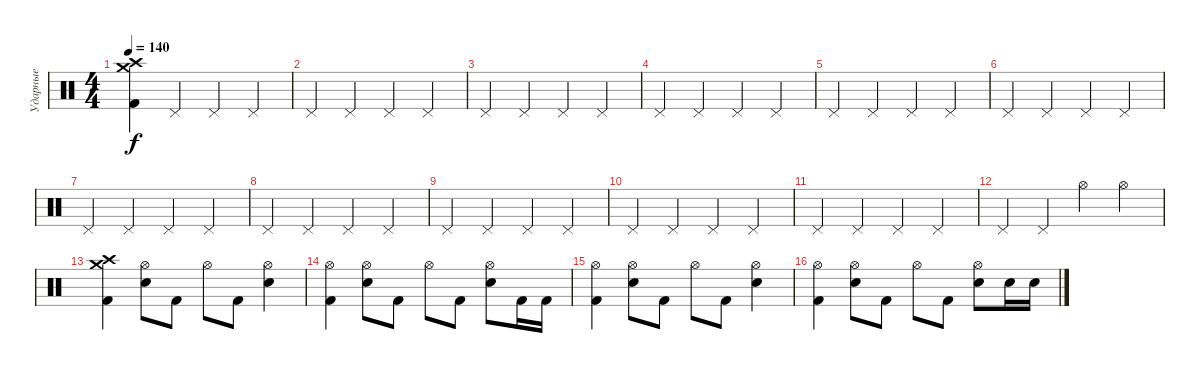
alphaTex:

\track ("Ударные" "Ударные") {instrument percussion}
\staff {score}
\articulation defaults
\ts (4 4)
\tempo 140
\clef neutral
\ks c
("Crash medium (hit)" "Crash high (hit)" "Kick (hit) 2").4{dy f} "Pedal Hi-Hat (hit)".4 "Pedal Hi-Hat (hit)".4 "Pedal Hi-Hat (hit)".4 |
"Pedal Hi-Hat (hit)".4 "Pedal Hi-Hat (hit)".4 "Pedal Hi-Hat (hit)".4 "Pedal Hi-Hat (hit)".4 |
"Pedal Hi-Hat (hit)".4 "Pedal Hi-Hat (hit)".4 "Pedal Hi-Hat (hit)".4 "Pedal Hi-Hat (hit)".4 |
"Pedal Hi-Hat (hit)".4 "Pedal Hi-Hat (hit)".4 "Pedal Hi-Hat (hit)".4 "Pedal Hi-Hat (hit)".4 |
"Pedal Hi-Hat (hit)".4 "Pedal Hi-Hat (hit)".4 "Pedal Hi-Hat (hit)".4 "Pedal Hi-Hat (hit)".4 |
"Pedal Hi-Hat (hit)".4 "Pedal Hi-Hat (hit)".4 "Pedal Hi-Hat (hit)".4 "Pedal Hi-Hat (hit)".4 |
"Pedal Hi-Hat (hit)".4 "Pedal Hi-Hat (hit)".4 "Pedal Hi-Hat (hit)".4 "Pedal Hi-Hat (hit)".4 |
"Pedal Hi-Hat (hit)".4 "Pedal Hi-Hat (hit)".4 "Pedal Hi-Hat (hit)".4 "Pedal Hi-Hat (hit)".4 |
"Pedal Hi-Hat (hit)".4 "Pedal Hi-Hat (hit)".4 "Pedal Hi-Hat (hit)".4 "Pedal Hi-Hat (hit)".4 |
"Pedal Hi-Hat (hit)".4 "Pedal Hi-Hat (hit)".4 "Pedal Hi-Hat (hit)".4 "Pedal Hi-Hat (hit)".4 |
"Pedal Hi-Hat (hit)".4 "Pedal Hi-Hat (hit)".4 "Pedal Hi-Hat (hit)".4 "Pedal Hi-Hat (hit)".4 |
"Pedal Hi-Hat (hit)".4 "Pedal Hi-Hat (hit)".4 "Hi-Hat (open)".4 "Hi-Hat (open)".4 |
("Crash medium (hit)" "Crash high (hit)" "Kick (hit) 2").4 ("Hi-Hat (open)" "Electric Snare (hit)").8 "Kick (hit) 2".8 "Hi-Hat (open)".8 "Kick (hit) 2".8 ("Hi-Hat (open)" "Electric Snare (hit)").4 |
("Hi-Hat (open)" "Kick (hit) 2").4 ("Hi-Hat (open)" "Electric Snare (hit)").8 "Kick (hit) 2".8 "Hi-Hat (open)".8 "Kick (hit) 2".8 ("Hi-Hat (open)" "Electric Snare (hit)").8 "Kick (hit) 2".16 "Kick (hit) 2".16 |
("Hi-Hat (open)" "Kick (hit) 2").4 ("Hi-Hat (open)" "Electric Snare (hit)").8 "Kick (hit) 2".8 "Hi-Hat (open)".8 "Kick (hit) 2".8 ("Hi-Hat (open)" "Electric Snare (hit)").4 |
("Hi-Hat (open)" "Kick (hit) 2").4 ("Hi-Hat (open)" "Electric Snare (hit)").8 "Kick (hit) 2".8 "Hi-Hat (open)".8 "Kick (hit) 2".8 ("Hi-Hat (open)" "Electric Snare (hit)").8 "Electric Snare (hit)".16 "Electric Snare (hit)".16
